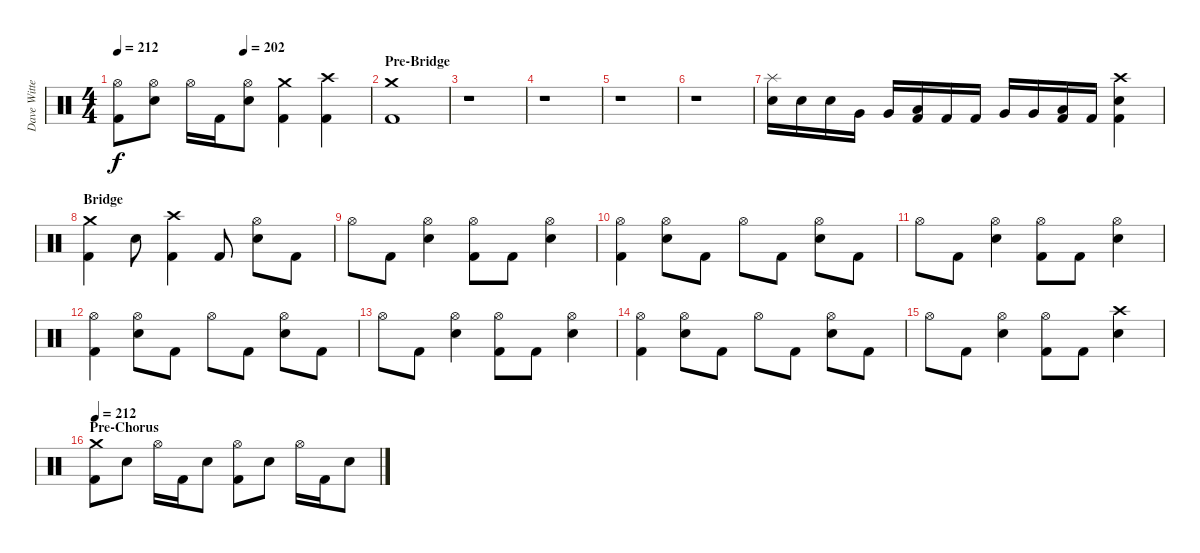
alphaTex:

\track ("Dave Witte" "Dave Witte") {instrument percussion}
\staff {score}
\articulation defaults
\ts (4 4)
\tempo 212
\tempo (202 0.5)
\clef neutral
\ks c
("Hi-Hat (open)" "Kick (hit) 2").8{dy f} ("Hi-Hat (open)" "Electric Snare (hit)").8 "Hi-Hat (open)".16 "Kick (hit) 2".16 ("Hi-Hat (open)" "Electric Snare (hit)").8 ("Crash medium (hit)" "Kick (hit) 2").4 ("Crash high (hit)" "Kick (hit) 2").4 |
\section ("" "Pre-Bridge")
("Crash medium (hit)" "Kick (hit) 2").1 |
r.1 |
r.1 |
r.1 |
r.1 |
("Splash (hit)" "Electric Snare (hit)").16 "Electric Snare (hit)".16 "Electric Snare (hit)".16 "Very Low Tom (hit)".16 "Very Low Tom (hit)".16 ("Low Floor Tom (hit)" "Kick (hit) 2").16 "Kick (hit) 2".16 "Kick (hit) 2".16 "Very Low Tom (hit)".16 "Very Low Tom (hit)".16 ("Low Floor Tom (hit)" "Kick (hit) 2").16 "Kick (hit) 2".16 ("Crash high (hit)" "Electric Snare (hit)" "Kick (hit) 2").4 |
\section ("" "Bridge")
("Crash medium (hit)" "Kick (hit) 2").4 "Electric Snare (hit)".8 ("Crash high (hit)" "Kick (hit) 2").4 "Kick (hit) 2".8 ("Hi-Hat (open)" "Electric Snare (hit)").8 "Kick (hit) 2".8 |
"Hi-Hat (open)".8 "Kick (hit) 2".8 ("Hi-Hat (open)" "Electric Snare (hit)").4 ("Hi-Hat (open)" "Kick (hit) 2").8 "Kick (hit) 2".8 ("Hi-Hat (open)" "Electric Snare (hit)").4 |
("Hi-Hat (open)" "Kick (hit) 2").4 ("Hi-Hat (open)" "Electric Snare (hit)").8 "Kick (hit) 2".8 "Hi-Hat (open)".8 "Kick (hit) 2".8 ("Hi-Hat (open)" "Electric Snare (hit)").8 "Kick (hit) 2".8 |
"Hi-Hat (open)".8 "Kick (hit) 2".8 ("Hi-Hat (open)" "Electric Snare (hit)").4 ("Hi-Hat (open)" "Kick (hit) 2").8 "Kick (hit) 2".8 ("Hi-Hat (open)" "Electric Snare (hit)").4 |
("Hi-Hat (open)" "Kick (hit) 2").4 ("Hi-Hat (open)" "Electric Snare (hit)").8 "Kick (hit) 2".8 "Hi-Hat (open)".8 "Kick (hit) 2".8 ("Hi-Hat (open)" "Electric Snare (hit)").8 "Kick (hit) 2".8 |
"Hi-Hat (open)".8 "Kick (hit) 2".8 ("Hi-Hat (open)" "Electric Snare (hit)").4 ("Hi-Hat (open)" "Kick (hit) 2").8 "Kick (hit) 2".8 ("Hi-Hat (open)" "Electric Snare (hit)").4 |
("Hi-Hat (open)" "Kick (hit) 2").4 ("Hi-Hat (open)" "Electric Snare (hit)").8 "Kick (hit) 2".8 "Hi-Hat (open)".8 "Kick (hit) 2".8 ("Hi-Hat (open)" "Electric Snare (hit)").8 "Kick (hit) 2".8 |
"Hi-Hat (open)".8 "Kick (hit) 2".8 ("Hi-Hat (open)" "Electric Snare (hit)").4 ("Hi-Hat (open)" "Kick (hit) 2").8 "Kick (hit) 2".8 ("Crash high (hit)" "Electric Snare (hit)").4 |
\section ("" "Pre-Chorus")
\tempo 212
("Crash medium (hit)" "Kick (hit) 2").8 "Electric Snare (hit)".8 "Hi-Hat (open)".16 "Kick (hit) 2".16 "Electric Snare (hit)".8 ("Hi-Hat (open)" "Kick (hit) 2").8 "Electric Snare (hit)".8 "Hi-Hat (open)".16 "Kick (hit) 2".16 "Electric Snare (hit)".8
